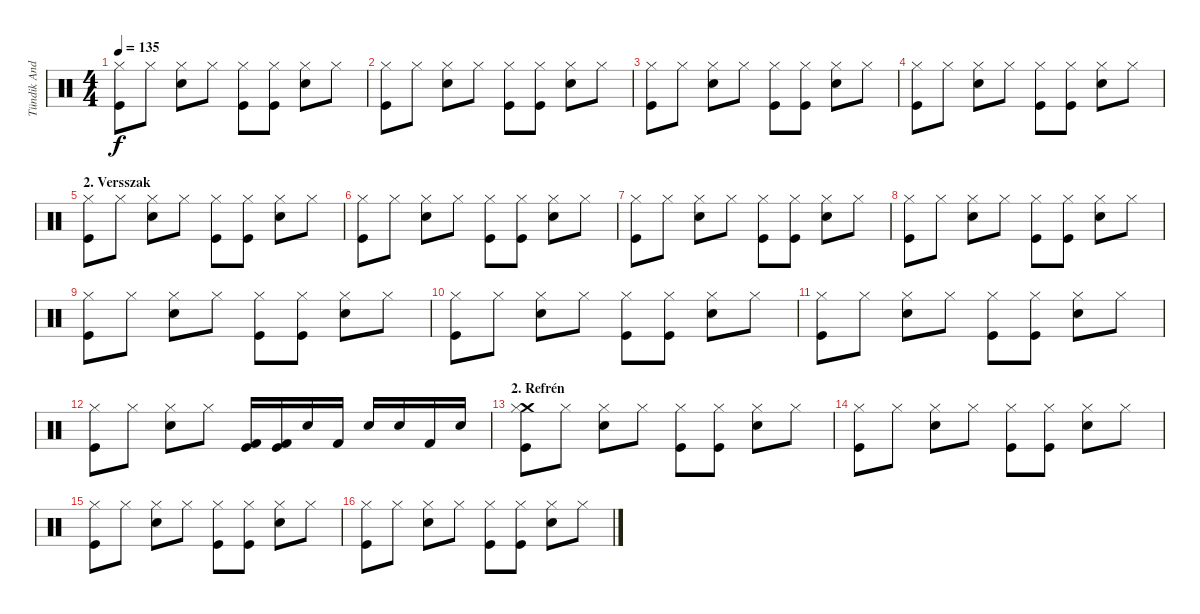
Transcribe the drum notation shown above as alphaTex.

\track ("Tündik András - Dob" "Tündik And") {instrument percussion}
\staff {score}
\articulation defaults
\ts (4 4)
\tempo 135
\clef neutral
\ks c
("Hi-Hat (closed)" "Kick (hit)").8{dy f} "Hi-Hat (closed)".8 ("Snare (hit) 2" "Hi-Hat (closed)").8 "Hi-Hat (closed)".8 ("Hi-Hat (closed)" "Kick (hit)").8 ("Hi-Hat (closed)" "Kick (hit)").8 ("Snare (hit) 2" "Hi-Hat (closed)").8 "Hi-Hat (closed)".8 |
("Hi-Hat (closed)" "Kick (hit)").8 "Hi-Hat (closed)".8 ("Snare (hit) 2" "Hi-Hat (closed)").8 "Hi-Hat (closed)".8 ("Hi-Hat (closed)" "Kick (hit)").8 ("Hi-Hat (closed)" "Kick (hit)").8 ("Snare (hit) 2" "Hi-Hat (closed)").8 "Hi-Hat (closed)".8 |
("Hi-Hat (closed)" "Kick (hit)").8 "Hi-Hat (closed)".8 ("Snare (hit) 2" "Hi-Hat (closed)").8 "Hi-Hat (closed)".8 ("Hi-Hat (closed)" "Kick (hit)").8 ("Hi-Hat (closed)" "Kick (hit)").8 ("Snare (hit) 2" "Hi-Hat (closed)").8 "Hi-Hat (closed)".8 |
("Hi-Hat (closed)" "Kick (hit)").8 "Hi-Hat (closed)".8 ("Snare (hit) 2" "Hi-Hat (closed)").8 "Hi-Hat (closed)".8 ("Hi-Hat (closed)" "Kick (hit)").8 ("Hi-Hat (closed)" "Kick (hit)").8 ("Snare (hit) 2" "Hi-Hat (closed)").8 "Hi-Hat (closed)".8 |
\section ("" "2. Versszak")
("Hi-Hat (closed)" "Kick (hit)").8 "Hi-Hat (closed)".8 ("Snare (hit) 2" "Hi-Hat (closed)").8 "Hi-Hat (closed)".8 ("Hi-Hat (closed)" "Kick (hit)").8 ("Hi-Hat (closed)" "Kick (hit)").8 ("Snare (hit) 2" "Hi-Hat (closed)").8 "Hi-Hat (closed)".8 |
("Hi-Hat (closed)" "Kick (hit)").8 "Hi-Hat (closed)".8 ("Snare (hit) 2" "Hi-Hat (closed)").8 "Hi-Hat (closed)".8 ("Hi-Hat (closed)" "Kick (hit)").8 ("Hi-Hat (closed)" "Kick (hit)").8 ("Snare (hit) 2" "Hi-Hat (closed)").8 "Hi-Hat (closed)".8 |
("Hi-Hat (closed)" "Kick (hit)").8 "Hi-Hat (closed)".8 ("Snare (hit) 2" "Hi-Hat (closed)").8 "Hi-Hat (closed)".8 ("Hi-Hat (closed)" "Kick (hit)").8 ("Hi-Hat (closed)" "Kick (hit)").8 ("Snare (hit) 2" "Hi-Hat (closed)").8 "Hi-Hat (closed)".8 |
("Hi-Hat (closed)" "Kick (hit)").8 "Hi-Hat (closed)".8 ("Snare (hit) 2" "Hi-Hat (closed)").8 "Hi-Hat (closed)".8 ("Hi-Hat (closed)" "Kick (hit)").8 ("Hi-Hat (closed)" "Kick (hit)").8 ("Snare (hit) 2" "Hi-Hat (closed)").8 "Hi-Hat (closed)".8 |
("Hi-Hat (closed)" "Kick (hit)").8 "Hi-Hat (closed)".8 ("Snare (hit) 2" "Hi-Hat (closed)").8 "Hi-Hat (closed)".8 ("Hi-Hat (closed)" "Kick (hit)").8 ("Hi-Hat (closed)" "Kick (hit)").8 ("Snare (hit) 2" "Hi-Hat (closed)").8 "Hi-Hat (closed)".8 |
("Hi-Hat (closed)" "Kick (hit)").8 "Hi-Hat (closed)".8 ("Snare (hit) 2" "Hi-Hat (closed)").8 "Hi-Hat (closed)".8 ("Hi-Hat (closed)" "Kick (hit)").8 ("Hi-Hat (closed)" "Kick (hit)").8 ("Snare (hit) 2" "Hi-Hat (closed)").8 "Hi-Hat (closed)".8 |
("Hi-Hat (closed)" "Kick (hit)").8 "Hi-Hat (closed)".8 ("Snare (hit) 2" "Hi-Hat (closed)").8 "Hi-Hat (closed)".8 ("Hi-Hat (closed)" "Kick (hit)").8 ("Hi-Hat (closed)" "Kick (hit)").8 ("Snare (hit) 2" "Hi-Hat (closed)").8 "Hi-Hat (closed)".8 |
("Hi-Hat (closed)" "Kick (hit)").8 "Hi-Hat (closed)".8 ("Snare (hit) 2" "Hi-Hat (closed)").8 "Hi-Hat (closed)".8 ("Kick (hit) 2" "Kick (hit)").16 ("Kick (hit) 2" "Kick (hit)").16 "Snare (hit) 2".16 "Kick (hit) 2".16 "Snare (hit) 2".16 "Snare (hit) 2".16 "Kick (hit) 2".16 "Snare (hit) 2".16 |
\section ("" "2. Refrén")
("Crash medium (hit)" "Hi-Hat (closed)" "Kick (hit)").8 "Hi-Hat (closed)".8 ("Snare (hit) 2" "Hi-Hat (closed)").8 "Hi-Hat (closed)".8 ("Hi-Hat (closed)" "Kick (hit)").8 ("Hi-Hat (closed)" "Kick (hit)").8 ("Snare (hit) 2" "Hi-Hat (closed)").8 "Hi-Hat (closed)".8 |
("Hi-Hat (closed)" "Kick (hit)").8 "Hi-Hat (closed)".8 ("Snare (hit) 2" "Hi-Hat (closed)").8 "Hi-Hat (closed)".8 ("Hi-Hat (closed)" "Kick (hit)").8 ("Hi-Hat (closed)" "Kick (hit)").8 ("Snare (hit) 2" "Hi-Hat (closed)").8 "Hi-Hat (closed)".8 |
("Hi-Hat (closed)" "Kick (hit)").8 "Hi-Hat (closed)".8 ("Snare (hit) 2" "Hi-Hat (closed)").8 "Hi-Hat (closed)".8 ("Hi-Hat (closed)" "Kick (hit)").8 ("Hi-Hat (closed)" "Kick (hit)").8 ("Snare (hit) 2" "Hi-Hat (closed)").8 "Hi-Hat (closed)".8 |
("Hi-Hat (closed)" "Kick (hit)").8 "Hi-Hat (closed)".8 ("Snare (hit) 2" "Hi-Hat (closed)").8 "Hi-Hat (closed)".8 ("Hi-Hat (closed)" "Kick (hit)").8 ("Hi-Hat (closed)" "Kick (hit)").8 ("Snare (hit) 2" "Hi-Hat (closed)").8 "Hi-Hat (closed)".8
